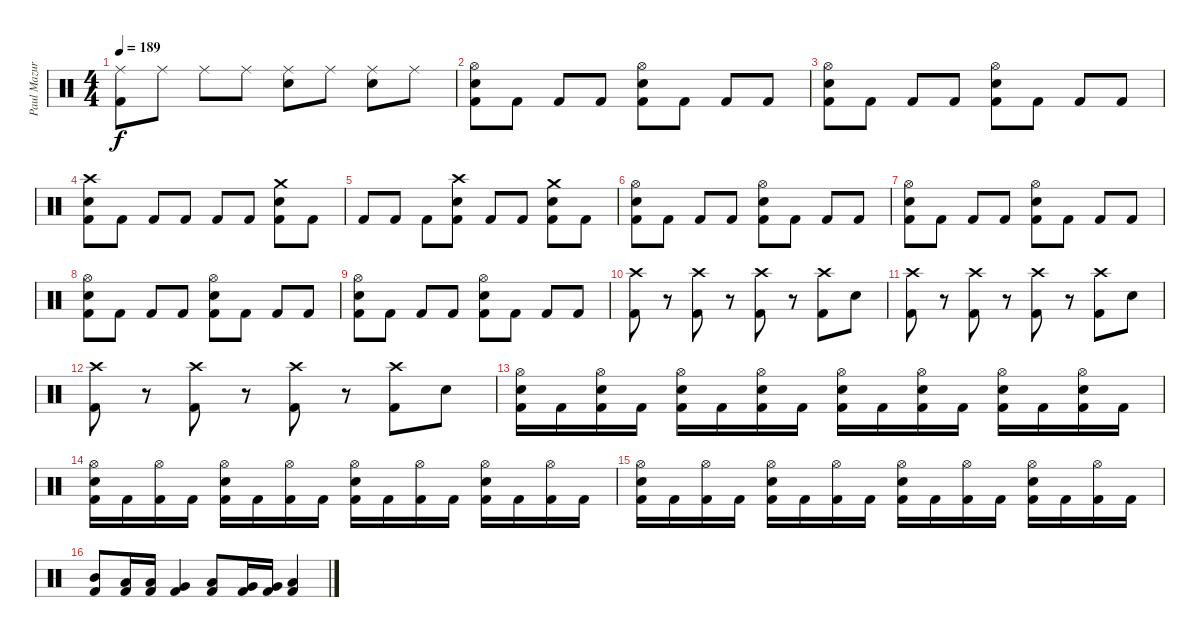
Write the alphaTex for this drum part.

\track ("Paul Mazurkevitch" "Paul Mazur") {instrument percussion}
\staff {score}
\articulation defaults
\ts (4 4)
\tempo 189
\clef neutral
\ks c
("Ride (middle)" "Kick (hit) 2").8{dy f} "Ride (middle)".8 "Ride (middle)".8 "Ride (middle)".8 ("Ride (middle)" "Electric Snare (hit)").8 "Ride (middle)".8 ("Ride (middle)" "Electric Snare (hit)").8 "Ride (middle)".8 |
("Hi-Hat (open)" "Electric Snare (hit)" "Kick (hit) 2").8 "Kick (hit) 2".8 "Kick (hit) 2".8 "Kick (hit) 2".8 ("Hi-Hat (open)" "Electric Snare (hit)" "Kick (hit) 2").8 "Kick (hit) 2".8 "Kick (hit) 2".8 "Kick (hit) 2".8 |
("Hi-Hat (open)" "Electric Snare (hit)" "Kick (hit) 2").8 "Kick (hit) 2".8 "Kick (hit) 2".8 "Kick (hit) 2".8 ("Hi-Hat (open)" "Electric Snare (hit)" "Kick (hit) 2").8 "Kick (hit) 2".8 "Kick (hit) 2".8 "Kick (hit) 2".8 |
("Crash high (hit)" "Electric Snare (hit)" "Kick (hit) 2").8 "Kick (hit) 2".8 "Kick (hit) 2".8 "Kick (hit) 2".8 "Kick (hit) 2".8 "Kick (hit) 2".8 ("Crash medium (hit)" "Electric Snare (hit)" "Kick (hit) 2").8 "Kick (hit) 2".8 |
"Kick (hit) 2".8 "Kick (hit) 2".8 "Kick (hit) 2".8 ("Crash high (hit)" "Electric Snare (hit)" "Kick (hit) 2").8 "Kick (hit) 2".8 "Kick (hit) 2".8 ("Crash medium (hit)" "Electric Snare (hit)" "Kick (hit) 2").8 "Kick (hit) 2".8 |
("Hi-Hat (open)" "Electric Snare (hit)" "Kick (hit) 2").8 "Kick (hit) 2".8 "Kick (hit) 2".8 "Kick (hit) 2".8 ("Hi-Hat (open)" "Electric Snare (hit)" "Kick (hit) 2").8 "Kick (hit) 2".8 "Kick (hit) 2".8 "Kick (hit) 2".8 |
("Hi-Hat (open)" "Electric Snare (hit)" "Kick (hit) 2").8 "Kick (hit) 2".8 "Kick (hit) 2".8 "Kick (hit) 2".8 ("Hi-Hat (open)" "Electric Snare (hit)" "Kick (hit) 2").8 "Kick (hit) 2".8 "Kick (hit) 2".8 "Kick (hit) 2".8 |
("Hi-Hat (open)" "Electric Snare (hit)" "Kick (hit) 2").8 "Kick (hit) 2".8 "Kick (hit) 2".8 "Kick (hit) 2".8 ("Hi-Hat (open)" "Electric Snare (hit)" "Kick (hit) 2").8 "Kick (hit) 2".8 "Kick (hit) 2".8 "Kick (hit) 2".8 |
("Hi-Hat (open)" "Electric Snare (hit)" "Kick (hit) 2").8 "Kick (hit) 2".8 "Kick (hit) 2".8 "Kick (hit) 2".8 ("Hi-Hat (open)" "Electric Snare (hit)" "Kick (hit) 2").8 "Kick (hit) 2".8 "Kick (hit) 2".8 "Kick (hit) 2".8 |
("Crash high (hit)" "Kick (hit) 2").8 r.8{volume 0} ("Crash high (hit)" "Kick (hit) 2").8{volume 16} r.8{volume 0} ("Crash high (hit)" "Kick (hit) 2").8{volume 16} r.8{volume 0} ("Crash high (hit)" "Kick (hit) 2").8{volume 16} "Electric Snare (hit)".8 |
("Crash high (hit)" "Kick (hit) 2").8 r.8{volume 0} ("Crash high (hit)" "Kick (hit) 2").8{volume 16} r.8{volume 0} ("Crash high (hit)" "Kick (hit) 2").8{volume 16} r.8{volume 0} ("Crash high (hit)" "Kick (hit) 2").8{volume 16} "Electric Snare (hit)".8 |
("Crash high (hit)" "Kick (hit) 2").8 r.8{volume 0} ("Crash high (hit)" "Kick (hit) 2").8{volume 16} r.8{volume 0} ("Crash high (hit)" "Kick (hit) 2").8{volume 16} r.8{volume 0} ("Crash high (hit)" "Kick (hit) 2").8{volume 16} "Electric Snare (hit)".8 |
("Hi-Hat (open)" "Electric Snare (hit)" "Kick (hit) 2").16 "Kick (hit) 2".16 ("Hi-Hat (open)" "Electric Snare (hit)" "Kick (hit) 2").16 "Kick (hit) 2".16 ("Hi-Hat (open)" "Electric Snare (hit)" "Kick (hit) 2").16 "Kick (hit) 2".16 ("Hi-Hat (open)" "Electric Snare (hit)" "Kick (hit) 2").16 "Kick (hit) 2".16 ("Hi-Hat (open)" "Electric Snare (hit)" "Kick (hit) 2").16 "Kick (hit) 2".16 ("Hi-Hat (open)" "Electric Snare (hit)" "Kick (hit) 2").16 "Kick (hit) 2".16 ("Hi-Hat (open)" "Electric Snare (hit)" "Kick (hit) 2").16 "Kick (hit) 2".16 ("Hi-Hat (open)" "Electric Snare (hit)" "Kick (hit) 2").16 "Kick (hit) 2".16 |
("Hi-Hat (open)" "Electric Snare (hit)" "Kick (hit) 2").16 "Kick (hit) 2".16 ("Hi-Hat (open)" "Kick (hit) 2").16 "Kick (hit) 2".16 ("Hi-Hat (open)" "Electric Snare (hit)" "Kick (hit) 2").16 "Kick (hit) 2".16 ("Hi-Hat (open)" "Kick (hit) 2").16 "Kick (hit) 2".16 ("Hi-Hat (open)" "Electric Snare (hit)" "Kick (hit) 2").16 "Kick (hit) 2".16 ("Hi-Hat (open)" "Kick (hit) 2").16 "Kick (hit) 2".16 ("Hi-Hat (open)" "Electric Snare (hit)" "Kick (hit) 2").16 "Kick (hit) 2".16 ("Hi-Hat (open)" "Kick (hit) 2").16 "Kick (hit) 2".16 |
("Hi-Hat (open)" "Electric Snare (hit)" "Kick (hit) 2").16 "Kick (hit) 2".16 ("Hi-Hat (open)" "Kick (hit) 2").16 "Kick (hit) 2".16 ("Hi-Hat (open)" "Electric Snare (hit)" "Kick (hit) 2").16 "Kick (hit) 2".16 ("Hi-Hat (open)" "Kick (hit) 2").16 "Kick (hit) 2".16 ("Hi-Hat (open)" "Electric Snare (hit)" "Kick (hit) 2").16 "Kick (hit) 2".16 ("Hi-Hat (open)" "Kick (hit) 2").16 "Kick (hit) 2".16 ("Hi-Hat (open)" "Electric Snare (hit)" "Kick (hit) 2").16 "Kick (hit) 2".16 ("Hi-Hat (open)" "Kick (hit) 2").16 "Kick (hit) 2".16 |
("Mid Tom (hit)" "Kick (hit) 2").8 ("Low Tom (hit)" "Kick (hit) 2").16 ("Low Tom (hit)" "Kick (hit) 2").16 ("Very Low Tom (hit)" "Kick (hit) 2").4 ("Low Tom (hit)" "Kick (hit) 2").8 ("Very Low Tom (hit)" "Kick (hit) 2").16 ("Very Low Tom (hit)" "Kick (hit) 2").16 ("Low Floor Tom (hit)" "Kick (hit) 2").4
